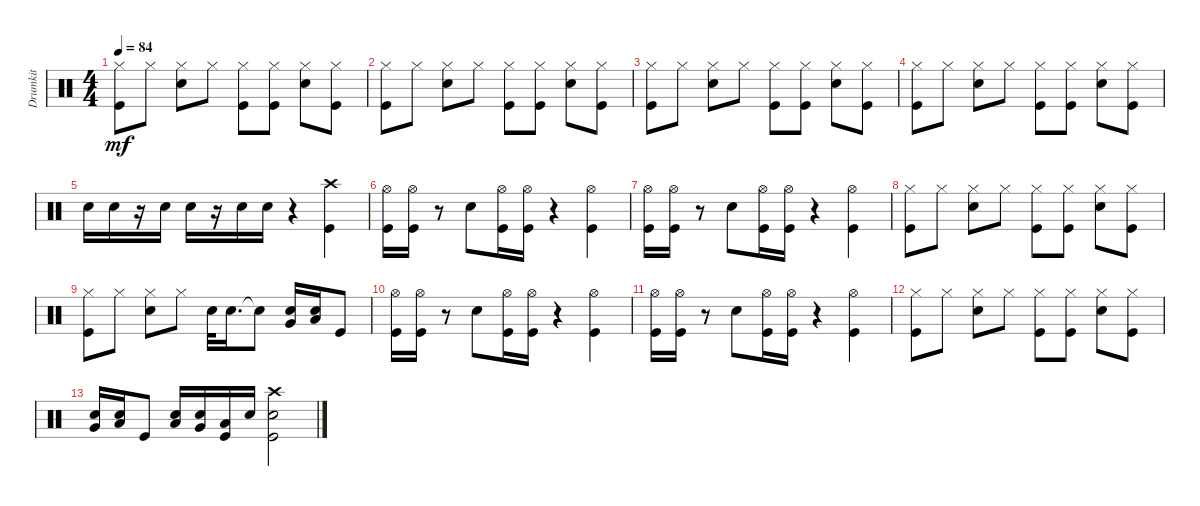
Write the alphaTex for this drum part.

\track ("Drumkit" "Drumkit") {instrument percussion}
\staff {score}
\articulation defaults
\ts (4 4)
\tempo 84
\clef neutral
\ks c
("Kick (hit)" "Hi-Hat (closed)").8{dy mf} "Hi-Hat (closed)".8 ("Snare (hit) 2" "Hi-Hat (closed)").8 "Hi-Hat (closed)".8 ("Kick (hit)" "Hi-Hat (closed)").8 ("Kick (hit)" "Hi-Hat (closed)").8 ("Snare (hit) 2" "Hi-Hat (closed)").8 ("Kick (hit)" "Hi-Hat (closed)").8 |
("Kick (hit)" "Hi-Hat (closed)").8 "Hi-Hat (closed)".8 ("Snare (hit) 2" "Hi-Hat (closed)").8 "Hi-Hat (closed)".8 ("Kick (hit)" "Hi-Hat (closed)").8 ("Kick (hit)" "Hi-Hat (closed)").8 ("Snare (hit) 2" "Hi-Hat (closed)").8 ("Kick (hit)" "Hi-Hat (closed)").8 |
("Kick (hit)" "Hi-Hat (closed)").8 "Hi-Hat (closed)".8 ("Snare (hit) 2" "Hi-Hat (closed)").8 "Hi-Hat (closed)".8 ("Kick (hit)" "Hi-Hat (closed)").8 ("Kick (hit)" "Hi-Hat (closed)").8 ("Snare (hit) 2" "Hi-Hat (closed)").8 ("Kick (hit)" "Hi-Hat (closed)").8 |
("Kick (hit)" "Hi-Hat (closed)").8 "Hi-Hat (closed)".8 ("Snare (hit) 2" "Hi-Hat (closed)").8 "Hi-Hat (closed)".8 ("Kick (hit)" "Hi-Hat (closed)").8 ("Kick (hit)" "Hi-Hat (closed)").8 ("Snare (hit) 2" "Hi-Hat (closed)").8 ("Kick (hit)" "Hi-Hat (closed)").8 |
"Snare (hit) 2".16 "Snare (hit) 2".16 r.16 "Snare (hit) 2".16 "Snare (hit) 2".16 r.16 "Snare (hit) 2".16 "Snare (hit) 2".16 r.4 ("Kick (hit)" "Crash high (hit)").4 |
("Kick (hit)" "Hi-Hat (open)").16 ("Kick (hit)" "Hi-Hat (open)").16 r.8 "Snare (hit) 2".8 ("Kick (hit)" "Hi-Hat (open)").16 ("Kick (hit)" "Hi-Hat (open)").16 r.4 ("Kick (hit)" "Hi-Hat (open)").4 |
("Kick (hit)" "Hi-Hat (open)").16 ("Kick (hit)" "Hi-Hat (open)").16 r.8 "Snare (hit) 2".8 ("Kick (hit)" "Hi-Hat (open)").16 ("Kick (hit)" "Hi-Hat (open)").16 r.4 ("Kick (hit)" "Hi-Hat (open)").4 |
("Kick (hit)" "Hi-Hat (closed)").8 "Hi-Hat (closed)".8 ("Snare (hit) 2" "Hi-Hat (closed)").8 "Hi-Hat (closed)".8 ("Kick (hit)" "Hi-Hat (closed)").8 ("Kick (hit)" "Hi-Hat (closed)").8 ("Snare (hit) 2" "Hi-Hat (closed)").8 ("Kick (hit)" "Hi-Hat (closed)").8 |
("Kick (hit)" "Hi-Hat (closed)").8 "Hi-Hat (closed)".8 ("Snare (hit) 2" "Hi-Hat (closed)").8 "Hi-Hat (closed)".8 "Snare (hit) 2".32 "Snare (hit) 2".16{d} "Snare (hit) 2"{t}.8 ("Snare (hit) 2" "Very Low Tom (hit)").16 ("Snare (hit) 2" "Low Tom (hit)").16 "Kick (hit)".8 |
("Kick (hit)" "Hi-Hat (open)").16 ("Kick (hit)" "Hi-Hat (open)").16 r.8 "Snare (hit) 2".8 ("Kick (hit)" "Hi-Hat (open)").16 ("Kick (hit)" "Hi-Hat (open)").16 r.4 ("Kick (hit)" "Hi-Hat (open)").4 |
("Kick (hit)" "Hi-Hat (open)").16 ("Kick (hit)" "Hi-Hat (open)").16 r.8 "Snare (hit) 2".8 ("Kick (hit)" "Hi-Hat (open)").16 ("Kick (hit)" "Hi-Hat (open)").16 r.4 ("Kick (hit)" "Hi-Hat (open)").4 |
("Kick (hit)" "Hi-Hat (closed)").8 "Hi-Hat (closed)".8 ("Snare (hit) 2" "Hi-Hat (closed)").8 "Hi-Hat (closed)".8 ("Kick (hit)" "Hi-Hat (closed)").8 ("Kick (hit)" "Hi-Hat (closed)").8 ("Snare (hit) 2" "Hi-Hat (closed)").8 ("Kick (hit)" "Hi-Hat (closed)").8 |
("Snare (hit) 2" "Very Low Tom (hit)").16 ("Snare (hit) 2" "Low Tom (hit)").16 "Kick (hit)".8 ("Snare (hit) 2" "Low Floor Tom (hit)").16 ("Snare (hit) 2" "Very Low Tom (hit)").16 ("Kick (hit)" "Low Tom (hit)").16 "Snare (hit) 2".16 ("Kick (hit)" "Snare (hit) 2" "Crash high (hit)").2
